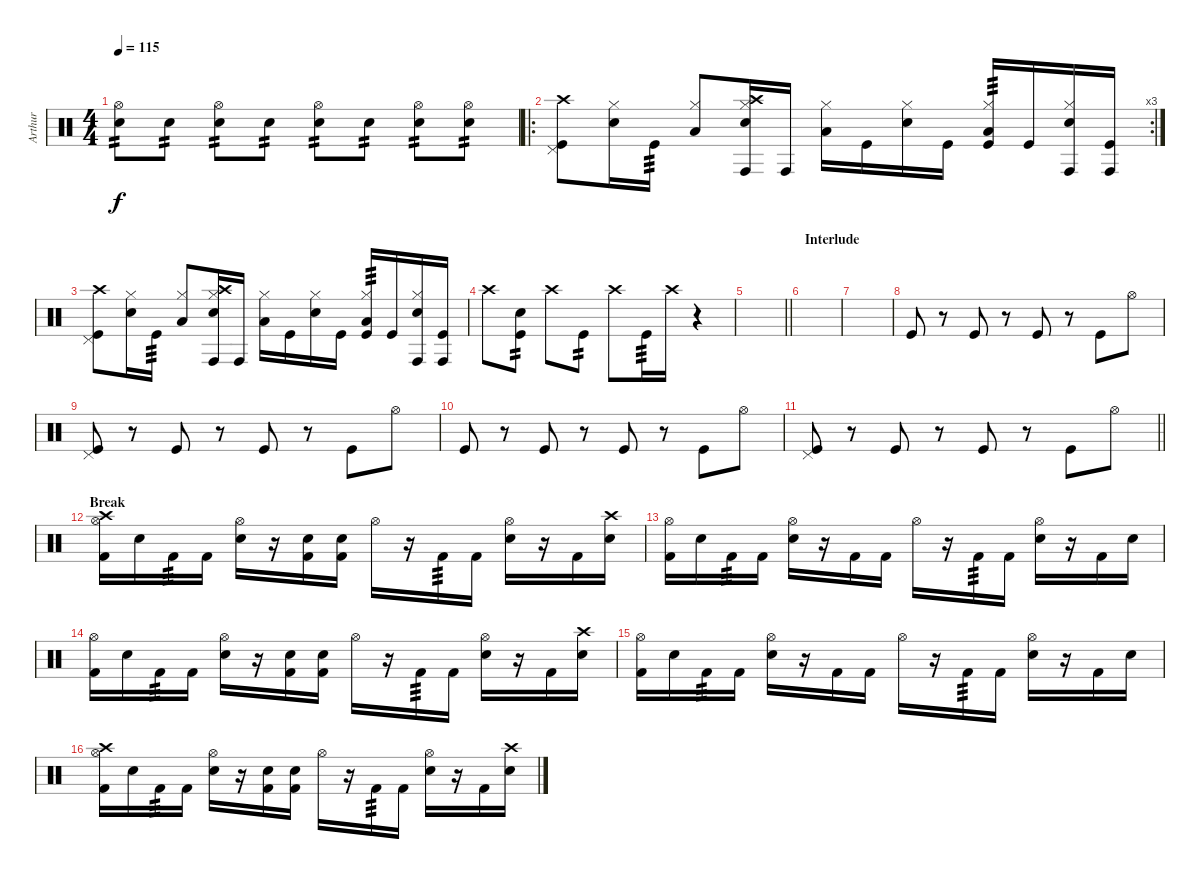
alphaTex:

\track ("Arthur" "Arthur") {instrument percussion}
\staff {score}
\articulation defaults
\ts (4 4)
\tempo 115
\clef neutral
\ks c
("Hi-Hat (open)" "Electric Snare (hit)").8{tp 2 dy f} "Electric Snare (hit)".8{tp 2} ("Hi-Hat (open)" "Electric Snare (hit)").8{tp 2} "Electric Snare (hit)".8{tp 2} ("Hi-Hat (open)" "Electric Snare (hit)").8{tp 2} "Electric Snare (hit)".8{tp 2} ("Hi-Hat (open)" "Electric Snare (hit)").8{tp 2} ("Hi-Hat (open)" "Electric Snare (hit)").8{tp 2} |
\ro
\rc 3
("Pedal Hi-Hat (hit)" "Crash high (hit)" "Kick (hit)").8 ("Hi-Hat (closed)" "Electric Snare (hit)").16 "Kick (hit)".16{tp 3} ("Hi-Hat (closed)" "Low Tom (hit)").8 ("Hi-Hat (closed)" "Crash high (hit)" "Electric Snare (hit)" "Conga high (hit)").16 "Conga high (hit)".16 ("Hi-Hat (closed)" "Low Tom (hit)").16 "Kick (hit)".16 ("Hi-Hat (closed)" "Electric Snare (hit)").16 "Kick (hit)".16 ("Hi-Hat (closed)" "Low Tom (hit)" "Kick (hit)").16{tp 3} "Kick (hit)".16 ("Hi-Hat (closed)" "Electric Snare (hit)" "Conga high (hit)").16 ("Conga high (hit)" "Kick (hit)").16 |
("Pedal Hi-Hat (hit)" "Crash high (hit)" "Kick (hit)").8 ("Hi-Hat (closed)" "Electric Snare (hit)").16 "Kick (hit)".16{tp 3} ("Hi-Hat (closed)" "Low Tom (hit)").8 ("Hi-Hat (closed)" "Crash high (hit)" "Electric Snare (hit)" "Conga high (hit)").16 "Conga high (hit)".16 ("Hi-Hat (closed)" "Low Tom (hit)").16 "Kick (hit)".16 ("Hi-Hat (closed)" "Electric Snare (hit)").16 "Kick (hit)".16 ("Hi-Hat (closed)" "Low Tom (hit)" "Kick (hit)").16{tp 3} "Kick (hit)".16 ("Hi-Hat (closed)" "Electric Snare (hit)" "Conga high (hit)").16 ("Conga high (hit)" "Kick (hit)").16 |
"Crash high (hit)".8 ("Electric Snare (hit)" "Kick (hit)").8{tp 2} "Crash high (hit)".8 "Kick (hit)".8{tp 2} "Crash high (hit)".8 "Kick (hit)".16{tp 3} "Crash high (hit)".16 r.4 |
\barLineRight lightlight
|
\section ("" "Interlude")
|
|
"Kick (hit)".8 r.8 "Kick (hit)".8 r.8 "Kick (hit)".8 r.8 "Kick (hit)".8 "Hi-Hat (open)".8 |
("Pedal Hi-Hat (hit)" "Kick (hit)").8 r.8 "Kick (hit)".8 r.8 "Kick (hit)".8 r.8 "Kick (hit)".8 "Hi-Hat (open)".8 |
"Kick (hit)".8 r.8 "Kick (hit)".8 r.8 "Kick (hit)".8 r.8 "Kick (hit)".8 "Hi-Hat (open)".8 |
\barLineRight lightlight
("Pedal Hi-Hat (hit)" "Kick (hit)").8 r.8 "Kick (hit)".8 r.8 "Kick (hit)".8 r.8 "Kick (hit)".8 "Hi-Hat (open)".8 |
\section ("" "Break")
("Crash high (hit)" "Hi-Hat (open)" "Kick (hit) 2").16 "Electric Snare (hit)".16 "Kick (hit) 2".16{tp 3} "Kick (hit) 2".16 ("Hi-Hat (open)" "Electric Snare (hit)").16 r.16 ("Electric Snare (hit)" "Kick (hit) 2").16 ("Electric Snare (hit)" "Kick (hit) 2").16 "Hi-Hat (open)".16 r.16 "Kick (hit) 2".16{tp 3} "Kick (hit) 2".16 ("Hi-Hat (open)" "Electric Snare (hit)").16 r.16 "Kick (hit) 2".16 ("Crash high (hit)" "Electric Snare (hit)").16 |
("Hi-Hat (open)" "Kick (hit) 2").16 "Electric Snare (hit)".16 "Kick (hit) 2".16{tp 3} "Kick (hit) 2".16 ("Hi-Hat (open)" "Electric Snare (hit)").16 r.16 "Kick (hit) 2".16 "Kick (hit) 2".16 "Hi-Hat (open)".16 r.16 "Kick (hit) 2".16{tp 3} "Kick (hit) 2".16 ("Hi-Hat (open)" "Electric Snare (hit)").16 r.16 "Kick (hit) 2".16 "Electric Snare (hit)".16 |
("Hi-Hat (open)" "Kick (hit) 2").16 "Electric Snare (hit)".16 "Kick (hit) 2".16{tp 3} "Kick (hit) 2".16 ("Hi-Hat (open)" "Electric Snare (hit)").16 r.16 ("Electric Snare (hit)" "Kick (hit) 2").16 ("Electric Snare (hit)" "Kick (hit) 2").16 "Hi-Hat (open)".16 r.16 "Kick (hit) 2".16{tp 3} "Kick (hit) 2".16 ("Hi-Hat (open)" "Electric Snare (hit)").16 r.16 "Kick (hit) 2".16 ("Crash high (hit)" "Electric Snare (hit)").16 |
("Hi-Hat (open)" "Kick (hit) 2").16 "Electric Snare (hit)".16 "Kick (hit) 2".16{tp 3} "Kick (hit) 2".16 ("Hi-Hat (open)" "Electric Snare (hit)").16 r.16 "Kick (hit) 2".16 "Kick (hit) 2".16 "Hi-Hat (open)".16 r.16 "Kick (hit) 2".16{tp 3} "Kick (hit) 2".16 ("Hi-Hat (open)" "Electric Snare (hit)").16 r.16 "Kick (hit) 2".16 "Electric Snare (hit)".16 |
("Crash high (hit)" "Hi-Hat (open)" "Kick (hit) 2").16 "Electric Snare (hit)".16 "Kick (hit) 2".16{tp 3} "Kick (hit) 2".16 ("Hi-Hat (open)" "Electric Snare (hit)").16 r.16 ("Electric Snare (hit)" "Kick (hit) 2").16 ("Electric Snare (hit)" "Kick (hit) 2").16 "Hi-Hat (open)".16 r.16 "Kick (hit) 2".16{tp 3} "Kick (hit) 2".16 ("Hi-Hat (open)" "Electric Snare (hit)").16 r.16 "Kick (hit) 2".16 ("Crash high (hit)" "Electric Snare (hit)").16
